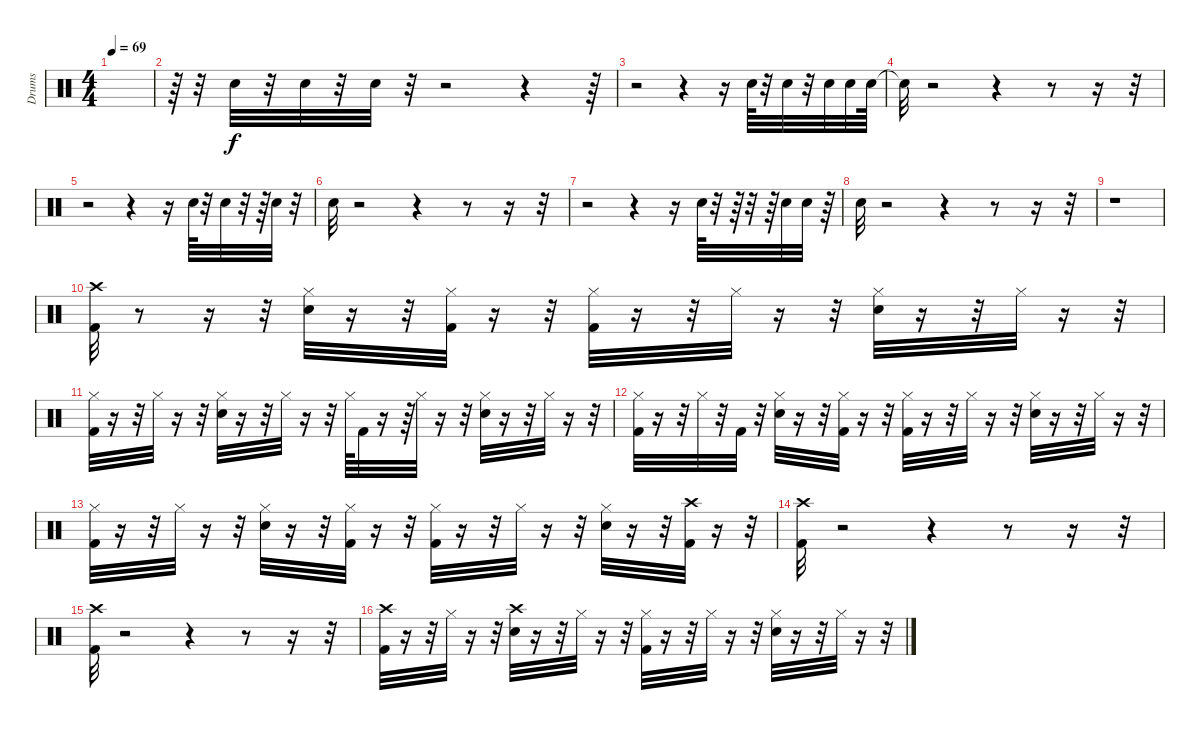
\track ("Drums" "Drums") {instrument percussion}
\staff {score}
\articulation defaults
\ts (4 4)
\tempo 69
\clef neutral
\ks c
|
r.64 r.32 "Snare (hit) 2".32 r.32 "Snare (hit) 2".32 r.32 "Snare (hit) 2".32 r.32 r.2 r.4 r.64 |
r.2 r.4 r.16 "Snare (hit) 2".64 r.32 "Snare (hit) 2".32 r.32 "Snare (hit) 2".32 "Snare (hit) 2".32 "Snare (hit) 2".64 |
"Snare (hit)"{t}.32 r.2 r.4 r.8 r.16 r.32 |
r.2 r.4 r.16 "Snare (hit) 2".64 r.32 "Snare (hit) 2".32 r.32 r.64 "Snare (hit) 2".32 r.32 |
"Snare (hit) 2".32 r.2 r.4 r.8 r.16 r.32 |
r.2 r.4 r.16 "Snare (hit) 2".64 r.32 r.64 r.32 r.64 "Snare (hit) 2".32 "Snare (hit) 2".32 r.64 |
"Snare (hit) 2".32 r.2 r.4 r.8 r.16 r.32 |
r.1 |
("Kick (hit) 2" "Crash high (hit)").32 r.8 r.16 r.32 ("Snare (hit) 2" "Hi-Hat (closed)").32 r.16 r.32 ("Hi-Hat (closed)" "Kick (hit) 2").32 r.16 r.32 ("Hi-Hat (closed)" "Kick (hit) 2").32 r.16 r.32 "Hi-Hat (closed)".32 r.16 r.32 ("Snare (hit) 2" "Hi-Hat (closed)").32 r.16 r.32 "Hi-Hat (closed)".32 r.16 r.32 |
("Hi-Hat (closed)" "Kick (hit) 2").32 r.16 r.32 "Hi-Hat (closed)".32 r.16 r.32 ("Snare (hit) 2" "Hi-Hat (closed)").32 r.16 r.32 "Hi-Hat (closed)".32 r.16 r.32 "Hi-Hat (closed)".64 "Kick (hit) 2".32 r.16 r.64 "Hi-Hat (closed)".32 r.16 r.32 ("Snare (hit) 2" "Hi-Hat (closed)").32 r.16 r.32 "Hi-Hat (closed)".32 r.16 r.32 |
("Hi-Hat (closed)" "Kick (hit) 2").32 r.16 r.32 "Hi-Hat (closed)".32 r.32 "Kick (hit) 2".32 r.32 ("Snare (hit) 2" "Hi-Hat (closed)").32 r.16 r.32 ("Hi-Hat (closed)" "Kick (hit) 2").32 r.16 r.32 ("Hi-Hat (closed)" "Kick (hit) 2").32 r.16 r.32 "Hi-Hat (closed)".32 r.16 r.32 ("Snare (hit) 2" "Hi-Hat (closed)").32 r.16 r.32 "Hi-Hat (closed)".32 r.16 r.32 |
("Kick (hit) 2" "Hi-Hat (closed)").32 r.16 r.32 "Hi-Hat (closed)".32 r.16 r.32 ("Snare (hit) 2" "Hi-Hat (closed)").32 r.16 r.32 ("Kick (hit) 2" "Hi-Hat (closed)").32 r.16 r.32 ("Hi-Hat (closed)" "Kick (hit) 2").32 r.16 r.32 "Hi-Hat (closed)".32 r.16 r.32 ("Snare (hit) 2" "Hi-Hat (closed)").32 r.16 r.32 ("Crash high (hit)" "Kick (hit) 2").32 r.16 r.32 |
("Kick (hit) 2" "Crash high (hit)").32 r.2 r.4 r.8 r.16 r.32 |
("Kick (hit) 2" "Crash high (hit)").32 r.2 r.4 r.8 r.16 r.32 |
("Kick (hit) 2" "Crash high (hit)").32 r.16 r.32 "Hi-Hat (closed)".32 r.16 r.32 ("Crash high (hit)" "Snare (hit) 2").32 r.16 r.32 "Hi-Hat (closed)".32 r.16 r.32 ("Hi-Hat (closed)" "Kick (hit) 2").32 r.16 r.32 "Hi-Hat (closed)".32 r.16 r.32 ("Snare (hit) 2" "Hi-Hat (closed)").32 r.16 r.32 "Hi-Hat (closed)".32 r.16 r.32
